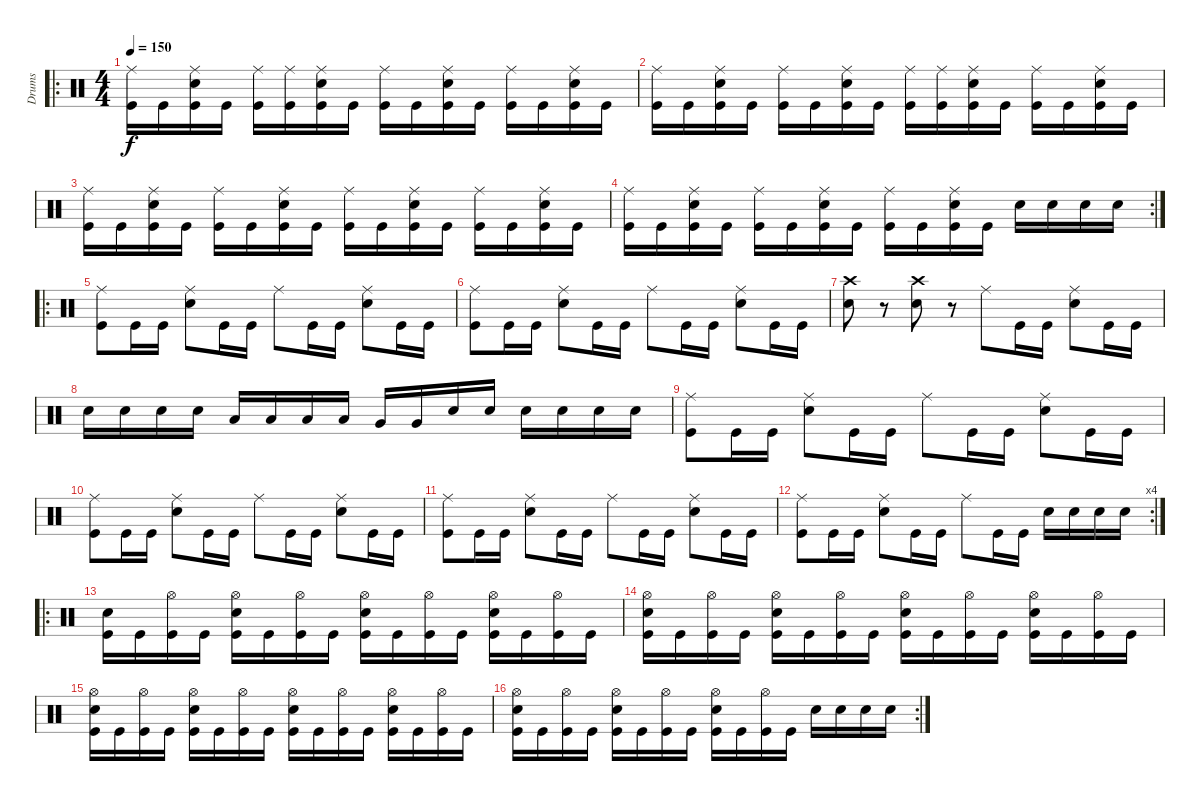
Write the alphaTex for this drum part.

\track ("Drums" "Drums") {instrument percussion}
\staff {score}
\articulation defaults
\ro
\ts (4 4)
\tempo 150
\clef neutral
\ks c
("Ride (middle)" "Kick (hit)").16{dy f} "Kick (hit)".16 ("Ride (middle)" "Snare (hit) 2" "Kick (hit)").16 "Kick (hit)".16 ("Ride (middle)" "Kick (hit)").16 ("Ride (middle)" "Kick (hit)").16 ("Ride (middle)" "Snare (hit) 2" "Kick (hit)").16 "Kick (hit)".16 ("Ride (middle)" "Kick (hit)").16 "Kick (hit)".16 ("Ride (middle)" "Snare (hit) 2" "Kick (hit)").16 "Kick (hit)".16 ("Ride (middle)" "Kick (hit)").16 "Kick (hit)".16 ("Ride (middle)" "Snare (hit) 2" "Kick (hit)").16 "Kick (hit)".16 |
("Ride (middle)" "Kick (hit)").16 "Kick (hit)".16 ("Ride (middle)" "Snare (hit) 2" "Kick (hit)").16 "Kick (hit)".16 ("Ride (middle)" "Kick (hit)").16 "Kick (hit)".16 ("Ride (middle)" "Snare (hit) 2" "Kick (hit)").16 "Kick (hit)".16 ("Ride (middle)" "Kick (hit)").16 ("Ride (middle)" "Kick (hit)").16 ("Ride (middle)" "Snare (hit) 2" "Kick (hit)").16 "Kick (hit)".16 ("Ride (middle)" "Kick (hit)").16 "Kick (hit)".16 ("Ride (middle)" "Snare (hit) 2" "Kick (hit)").16 "Kick (hit)".16 |
("Ride (middle)" "Kick (hit)").16 "Kick (hit)".16 ("Ride (middle)" "Snare (hit) 2" "Kick (hit)").16 "Kick (hit)".16 ("Ride (middle)" "Kick (hit)").16 "Kick (hit)".16 ("Ride (middle)" "Snare (hit) 2" "Kick (hit)").16 "Kick (hit)".16 ("Ride (middle)" "Kick (hit)").16 "Kick (hit)".16 ("Ride (middle)" "Snare (hit) 2" "Kick (hit)").16 "Kick (hit)".16 ("Ride (middle)" "Kick (hit)").16 "Kick (hit)".16 ("Ride (middle)" "Snare (hit) 2" "Kick (hit)").16 "Kick (hit)".16 |
\rc 2
("Ride (middle)" "Kick (hit)").16 "Kick (hit)".16 ("Ride (middle)" "Snare (hit) 2" "Kick (hit)").16 "Kick (hit)".16 ("Ride (middle)" "Kick (hit)").16 "Kick (hit)".16 ("Ride (middle)" "Snare (hit) 2" "Kick (hit)").16 "Kick (hit)".16 ("Ride (middle)" "Kick (hit)").16 "Kick (hit)".16 ("Ride (middle)" "Snare (hit) 2" "Kick (hit)").16 "Kick (hit)".16 "Snare (hit) 2".16 "Snare (hit) 2".16 "Snare (hit) 2".16 "Snare (hit) 2".16 |
\ro
("Ride (middle)" "Kick (hit)").8 "Kick (hit)".16 "Kick (hit)".16 ("Ride (middle)" "Snare (hit) 2").8 "Kick (hit)".16 "Kick (hit)".16 "Ride (middle)".8 "Kick (hit)".16 "Kick (hit)".16 ("Ride (middle)" "Snare (hit) 2").8 "Kick (hit)".16 "Kick (hit)".16 |
("Ride (middle)" "Kick (hit)").8 "Kick (hit)".16 "Kick (hit)".16 ("Ride (middle)" "Snare (hit) 2").8 "Kick (hit)".16 "Kick (hit)".16 "Ride (middle)".8 "Kick (hit)".16 "Kick (hit)".16 ("Ride (middle)" "Snare (hit) 2").8 "Kick (hit)".16 "Kick (hit)".16 |
("Crash high (hit)" "Snare (hit) 2").8 r.8 ("Crash high (hit)" "Snare (hit) 2").8 r.8 "Ride (middle)".8 "Kick (hit)".16 "Kick (hit)".16 ("Ride (middle)" "Snare (hit) 2").8 "Kick (hit)".16 "Kick (hit)".16 |
"Snare (hit) 2".16 "Snare (hit) 2".16 "Snare (hit) 2".16 "Snare (hit) 2".16 "Low Floor Tom (hit)".16 "Low Floor Tom (hit)".16 "Low Floor Tom (hit)".16 "Low Floor Tom (hit)".16 "Very Low Tom (hit)".16 "Very Low Tom (hit)".16 "Snare (hit) 2".16 "Snare (hit) 2".16 "Snare (hit) 2".16 "Snare (hit) 2".16 "Snare (hit) 2".16 "Snare (hit) 2".16 |
("Ride (middle)" "Kick (hit)").8 "Kick (hit)".16 "Kick (hit)".16 ("Ride (middle)" "Snare (hit) 2").8 "Kick (hit)".16 "Kick (hit)".16 "Ride (middle)".8 "Kick (hit)".16 "Kick (hit)".16 ("Ride (middle)" "Snare (hit) 2").8 "Kick (hit)".16 "Kick (hit)".16 |
("Ride (middle)" "Kick (hit)").8 "Kick (hit)".16 "Kick (hit)".16 ("Ride (middle)" "Snare (hit) 2").8 "Kick (hit)".16 "Kick (hit)".16 "Ride (middle)".8 "Kick (hit)".16 "Kick (hit)".16 ("Ride (middle)" "Snare (hit) 2").8 "Kick (hit)".16 "Kick (hit)".16 |
("Ride (middle)" "Kick (hit)").8 "Kick (hit)".16 "Kick (hit)".16 ("Ride (middle)" "Snare (hit) 2").8 "Kick (hit)".16 "Kick (hit)".16 "Ride (middle)".8 "Kick (hit)".16 "Kick (hit)".16 ("Ride (middle)" "Snare (hit) 2").8 "Kick (hit)".16 "Kick (hit)".16 |
\rc 4
("Ride (middle)" "Kick (hit)").8 "Kick (hit)".16 "Kick (hit)".16 ("Ride (middle)" "Snare (hit) 2").8 "Kick (hit)".16 "Kick (hit)".16 "Ride (middle)".8 "Kick (hit)".16 "Kick (hit)".16 "Snare (hit) 2".16 "Snare (hit) 2".16 "Snare (hit) 2".16 "Snare (hit) 2".16 |
\ro
("Snare (hit) 2" "Kick (hit)").16 "Kick (hit)".16 ("Hi-Hat (open)" "Kick (hit)").16 "Kick (hit)".16 ("Hi-Hat (open)" "Snare (hit) 2" "Kick (hit)").16 "Kick (hit)".16 ("Hi-Hat (open)" "Kick (hit)").16 "Kick (hit)".16 ("Hi-Hat (open)" "Snare (hit) 2" "Kick (hit)").16 "Kick (hit)".16 ("Hi-Hat (open)" "Kick (hit)").16 "Kick (hit)".16 ("Hi-Hat (open)" "Snare (hit) 2" "Kick (hit)").16 "Kick (hit)".16 ("Hi-Hat (open)" "Kick (hit)").16 "Kick (hit)".16 |
("Hi-Hat (open)" "Snare (hit) 2" "Kick (hit)").16 "Kick (hit)".16 ("Hi-Hat (open)" "Kick (hit)").16 "Kick (hit)".16 ("Hi-Hat (open)" "Snare (hit) 2" "Kick (hit)").16 "Kick (hit)".16 ("Hi-Hat (open)" "Kick (hit)").16 "Kick (hit)".16 ("Hi-Hat (open)" "Snare (hit) 2" "Kick (hit)").16 "Kick (hit)".16 ("Hi-Hat (open)" "Kick (hit)").16 "Kick (hit)".16 ("Hi-Hat (open)" "Snare (hit) 2" "Kick (hit)").16 "Kick (hit)".16 ("Hi-Hat (open)" "Kick (hit)").16 "Kick (hit)".16 |
("Hi-Hat (open)" "Snare (hit) 2" "Kick (hit)").16 "Kick (hit)".16 ("Hi-Hat (open)" "Kick (hit)").16 "Kick (hit)".16 ("Hi-Hat (open)" "Snare (hit) 2" "Kick (hit)").16 "Kick (hit)".16 ("Hi-Hat (open)" "Kick (hit)").16 "Kick (hit)".16 ("Hi-Hat (open)" "Snare (hit) 2" "Kick (hit)").16 "Kick (hit)".16 ("Hi-Hat (open)" "Kick (hit)").16 "Kick (hit)".16 ("Hi-Hat (open)" "Snare (hit) 2" "Kick (hit)").16 "Kick (hit)".16 ("Hi-Hat (open)" "Kick (hit)").16 "Kick (hit)".16 |
\rc 2
("Snare (hit) 2" "Hi-Hat (open)" "Kick (hit)").16 "Kick (hit)".16 ("Hi-Hat (open)" "Kick (hit)").16 "Kick (hit)".16 ("Hi-Hat (open)" "Snare (hit) 2" "Kick (hit)").16 "Kick (hit)".16 ("Hi-Hat (open)" "Kick (hit)").16 "Kick (hit)".16 ("Hi-Hat (open)" "Snare (hit) 2" "Kick (hit)").16 "Kick (hit)".16 ("Hi-Hat (open)" "Kick (hit)").16 "Kick (hit)".16 "Snare (hit) 2".16 "Snare (hit) 2".16 "Snare (hit) 2".16 "Snare (hit) 2".16
